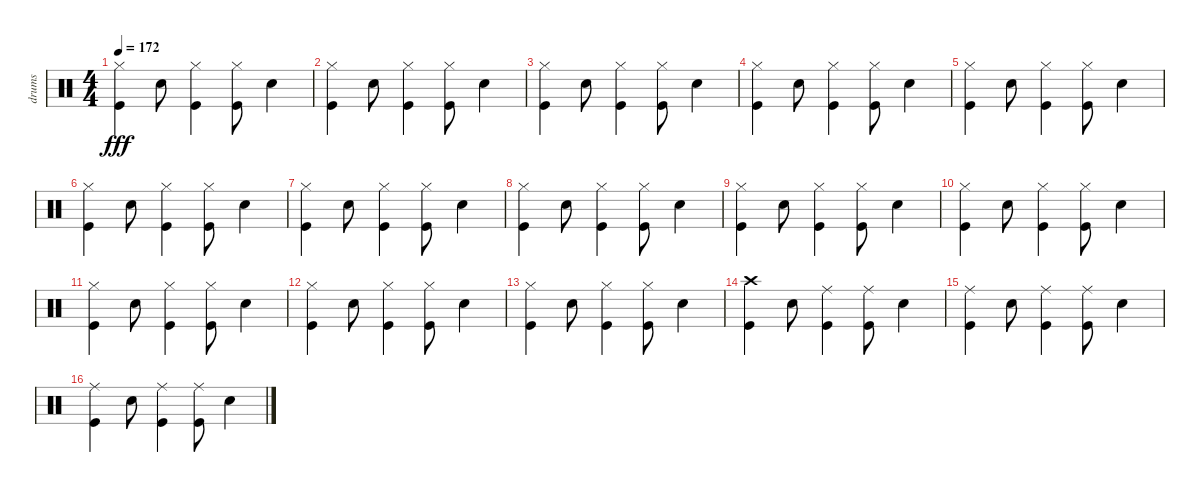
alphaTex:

\track ("drums" "drums") {instrument percussion}
\staff {score}
\articulation defaults
\ts (4 4)
\tempo 172
\clef neutral
\ks c
("Hi-Hat (closed)" "Kick (hit)").4{dy fff} "Electric Snare (hit)".8 ("Hi-Hat (closed)" "Kick (hit)").4 ("Hi-Hat (closed)" "Kick (hit)").8 "Electric Snare (hit)".4 |
("Hi-Hat (closed)" "Kick (hit)").4 "Electric Snare (hit)".8 ("Hi-Hat (closed)" "Kick (hit)").4 ("Hi-Hat (closed)" "Kick (hit)").8 "Electric Snare (hit)".4 |
("Hi-Hat (closed)" "Kick (hit)").4 "Electric Snare (hit)".8 ("Hi-Hat (closed)" "Kick (hit)").4 ("Hi-Hat (closed)" "Kick (hit)").8 "Electric Snare (hit)".4 |
("Hi-Hat (closed)" "Kick (hit)").4 "Electric Snare (hit)".8 ("Hi-Hat (closed)" "Kick (hit)").4 ("Hi-Hat (closed)" "Kick (hit)").8 "Electric Snare (hit)".4 |
("Hi-Hat (closed)" "Kick (hit)").4 "Electric Snare (hit)".8 ("Hi-Hat (closed)" "Kick (hit)").4 ("Hi-Hat (closed)" "Kick (hit)").8 "Electric Snare (hit)".4 |
("Hi-Hat (closed)" "Kick (hit)").4 "Electric Snare (hit)".8 ("Hi-Hat (closed)" "Kick (hit)").4 ("Hi-Hat (closed)" "Kick (hit)").8 "Electric Snare (hit)".4 |
("Hi-Hat (closed)" "Kick (hit)").4 "Electric Snare (hit)".8 ("Hi-Hat (closed)" "Kick (hit)").4 ("Hi-Hat (closed)" "Kick (hit)").8 "Electric Snare (hit)".4 |
("Hi-Hat (closed)" "Kick (hit)").4 "Electric Snare (hit)".8 ("Hi-Hat (closed)" "Kick (hit)").4 ("Hi-Hat (closed)" "Kick (hit)").8 "Electric Snare (hit)".4 |
("Hi-Hat (closed)" "Kick (hit)").4 "Electric Snare (hit)".8 ("Hi-Hat (closed)" "Kick (hit)").4 ("Hi-Hat (closed)" "Kick (hit)").8 "Electric Snare (hit)".4 |
("Hi-Hat (closed)" "Kick (hit)").4 "Electric Snare (hit)".8 ("Hi-Hat (closed)" "Kick (hit)").4 ("Hi-Hat (closed)" "Kick (hit)").8 "Electric Snare (hit)".4 |
("Hi-Hat (closed)" "Kick (hit)").4 "Electric Snare (hit)".8 ("Hi-Hat (closed)" "Kick (hit)").4 ("Hi-Hat (closed)" "Kick (hit)").8 "Electric Snare (hit)".4 |
("Hi-Hat (closed)" "Kick (hit)").4 "Electric Snare (hit)".8 ("Hi-Hat (closed)" "Kick (hit)").4 ("Hi-Hat (closed)" "Kick (hit)").8 "Electric Snare (hit)".4 |
("Hi-Hat (closed)" "Kick (hit)").4 "Electric Snare (hit)".8 ("Hi-Hat (closed)" "Kick (hit)").4 ("Hi-Hat (closed)" "Kick (hit)").8 "Electric Snare (hit)".4 |
("Crash high (hit)" "Kick (hit)").4 "Electric Snare (hit)".8 ("Ride (middle)" "Kick (hit)").4 ("Ride (middle)" "Kick (hit)").8 "Electric Snare (hit)".4 |
("Ride (middle)" "Kick (hit)").4 "Electric Snare (hit)".8 ("Ride (middle)" "Kick (hit)").4 ("Ride (middle)" "Kick (hit)").8 "Electric Snare (hit)".4 |
("Ride (middle)" "Kick (hit)").4 "Electric Snare (hit)".8 ("Ride (middle)" "Kick (hit)").4 ("Ride (middle)" "Kick (hit)").8 "Electric Snare (hit)".4
